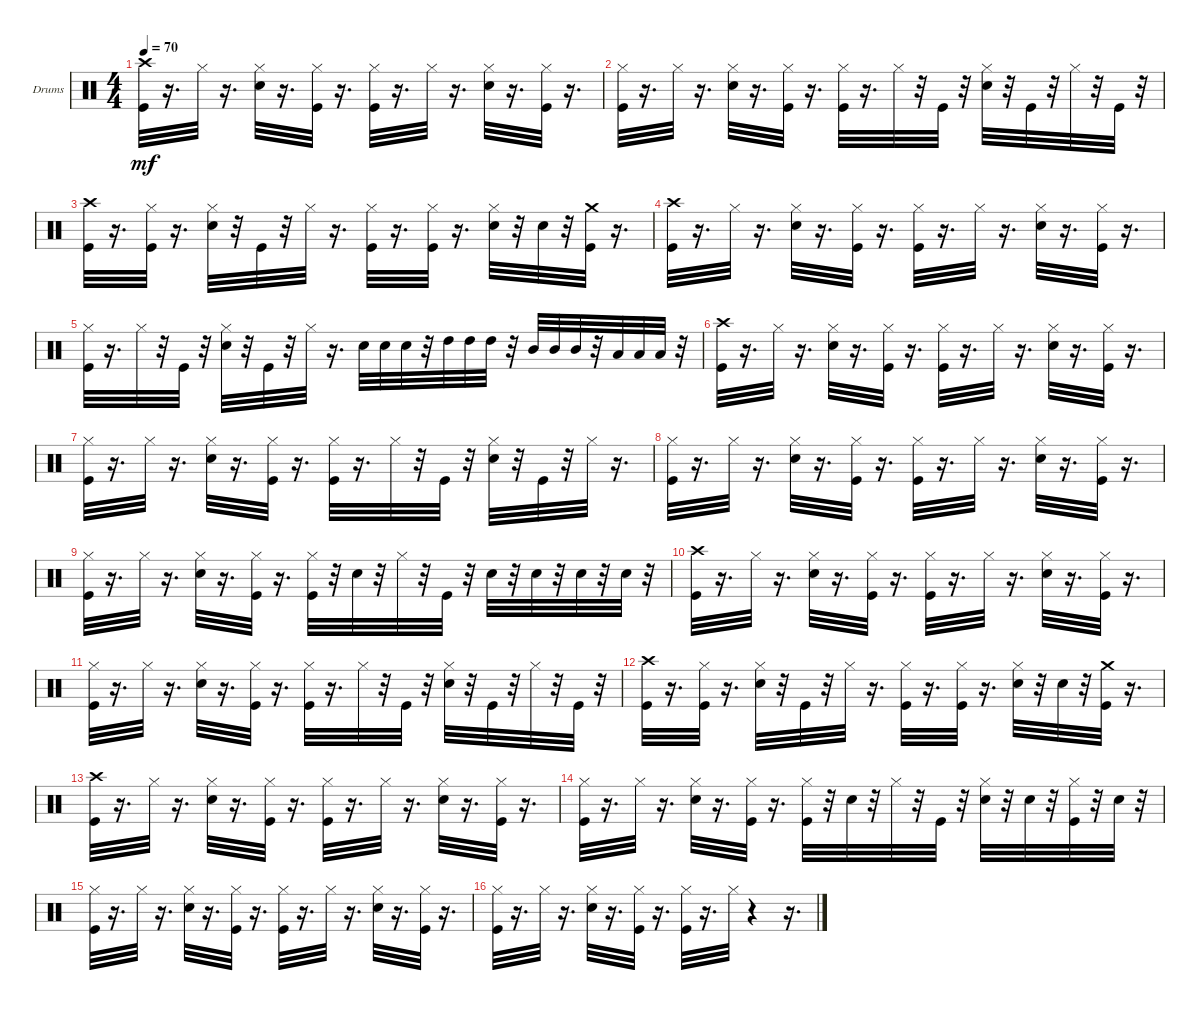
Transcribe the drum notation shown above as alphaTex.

\bracketExtendMode groupsimilarinstruments
\firstSystemTrackNameOrientation horizontal
\otherSystemsTrackNameOrientation horizontal
\track ("" "Drums") {instrument percussion}
\staff {score}
\articulation defaults
\ts (4 4)
\tempo 70
\clef neutral
\ks c
("Crash high (hit)" "Kick (hit)").32{dy mf} r.16{d} "Hi-Hat (closed)".32 r.16{d} ("Snare (hit) 2" "Hi-Hat (closed)").32 r.16{d} ("Kick (hit)" "Hi-Hat (closed)").32 r.16{d} ("Kick (hit)" "Hi-Hat (closed)").32 r.16{d} "Hi-Hat (closed)".32 r.16{d} ("Snare (hit) 2" "Hi-Hat (closed)").32 r.16{d} ("Kick (hit)" "Hi-Hat (closed)").32 r.16{d} |
("Hi-Hat (closed)" "Kick (hit)").32 r.16{d} "Hi-Hat (closed)".32 r.16{d} ("Snare (hit) 2" "Hi-Hat (closed)").32 r.16{d} ("Kick (hit)" "Hi-Hat (closed)").32 r.16{d} ("Kick (hit)" "Hi-Hat (closed)").32 r.16{d} "Hi-Hat (closed)".32 r.32 "Kick (hit)".32 r.32 ("Snare (hit) 2" "Hi-Hat (closed)").32 r.32 "Kick (hit)".32 r.32 "Hi-Hat (closed)".32 r.32 "Kick (hit)".32 r.32 |
("Crash high (hit)" "Kick (hit)").32 r.16{d} ("Hi-Hat (closed)" "Kick (hit)").32 r.16{d} ("Hi-Hat (closed)" "Snare (hit) 2").32 r.32 "Kick (hit)".32 r.32 "Hi-Hat (closed)".32 r.16{d} ("Hi-Hat (closed)" "Kick (hit)").32 r.16{d} ("Hi-Hat (closed)" "Kick (hit)").32 r.16{d} ("Hi-Hat (closed)" "Snare (hit) 2").32 r.32 "Snare (hit) 2".32 r.32 ("Crash medium (hit)" "Kick (hit)").32 r.16{d} |
("Crash high (hit)" "Kick (hit)").32 r.16{d} "Hi-Hat (closed)".32 r.16{d} ("Snare (hit) 2" "Hi-Hat (closed)").32 r.16{d} ("Kick (hit)" "Hi-Hat (closed)").32 r.16{d} ("Kick (hit)" "Hi-Hat (closed)").32 r.16{d} "Hi-Hat (closed)".32 r.16{d} ("Snare (hit) 2" "Hi-Hat (closed)").32 r.16{d} ("Kick (hit)" "Hi-Hat (closed)").32 r.16{d} |
("Hi-Hat (closed)" "Kick (hit)").32 r.16{d} "Hi-Hat (closed)".32 r.32 "Kick (hit)".32 r.32 ("Snare (hit) 2" "Hi-Hat (closed)").32 r.32 "Kick (hit)".32 r.32 "Hi-Hat (closed)".32 r.16{d} "Snare (hit) 2".32 "Snare (hit) 2".32 "Snare (hit) 2".32 r.32 "High Tom (hit)".32 "High Tom (hit)".32 "High Tom (hit)".32 r.32 "Mid Tom (hit)".32 "Mid Tom (hit)".32 "Mid Tom (hit)".32 r.32 "Low Tom (hit)".32 "Low Tom (hit)".32 "Low Tom (hit)".32 r.32 |
("Crash high (hit)" "Kick (hit)").32 r.16{d} "Hi-Hat (closed)".32 r.16{d} ("Snare (hit) 2" "Hi-Hat (closed)").32 r.16{d} ("Kick (hit)" "Hi-Hat (closed)").32 r.16{d} ("Kick (hit)" "Hi-Hat (closed)").32 r.16{d} "Hi-Hat (closed)".32 r.16{d} ("Snare (hit) 2" "Hi-Hat (closed)").32 r.16{d} ("Kick (hit)" "Hi-Hat (closed)").32 r.16{d} |
("Hi-Hat (closed)" "Kick (hit)").32 r.16{d} "Hi-Hat (closed)".32 r.16{d} ("Snare (hit) 2" "Hi-Hat (closed)").32 r.16{d} ("Kick (hit)" "Hi-Hat (closed)").32 r.16{d} ("Kick (hit)" "Hi-Hat (closed)").32 r.16{d} "Hi-Hat (closed)".32 r.32 "Kick (hit)".32 r.32 ("Snare (hit) 2" "Hi-Hat (closed)").32 r.32 "Kick (hit)".32 r.32 "Hi-Hat (closed)".32 r.16{d} |
("Hi-Hat (closed)" "Kick (hit)").32 r.16{d} "Hi-Hat (closed)".32 r.16{d} ("Snare (hit) 2" "Hi-Hat (closed)").32 r.16{d} ("Kick (hit)" "Hi-Hat (closed)").32 r.16{d} ("Kick (hit)" "Hi-Hat (closed)").32 r.16{d} "Hi-Hat (closed)".32 r.16{d} ("Snare (hit) 2" "Hi-Hat (closed)").32 r.16{d} ("Kick (hit)" "Hi-Hat (closed)").32 r.16{d} |
("Hi-Hat (closed)" "Kick (hit)").32 r.16{d} "Hi-Hat (closed)".32 r.16{d} ("Snare (hit) 2" "Hi-Hat (closed)").32 r.16{d} ("Kick (hit)" "Hi-Hat (closed)").32 r.16{d} ("Kick (hit)" "Hi-Hat (closed)").32 r.32 "Snare (hit) 2".32 r.32 "Hi-Hat (closed)".32 r.32 "Kick (hit)".32 r.32 "Snare (hit) 2".32 r.32 "Snare (hit) 2".32 r.32 "Snare (hit) 2".32 r.32 "Snare (hit) 2".32 r.32 |
("Crash high (hit)" "Kick (hit)").32 r.16{d} "Hi-Hat (closed)".32 r.16{d} ("Snare (hit) 2" "Hi-Hat (closed)").32 r.16{d} ("Kick (hit)" "Hi-Hat (closed)").32 r.16{d} ("Kick (hit)" "Hi-Hat (closed)").32 r.16{d} "Hi-Hat (closed)".32 r.16{d} ("Snare (hit) 2" "Hi-Hat (closed)").32 r.16{d} ("Kick (hit)" "Hi-Hat (closed)").32 r.16{d} |
("Hi-Hat (closed)" "Kick (hit)").32 r.16{d} "Hi-Hat (closed)".32 r.16{d} ("Snare (hit) 2" "Hi-Hat (closed)").32 r.16{d} ("Kick (hit)" "Hi-Hat (closed)").32 r.16{d} ("Kick (hit)" "Hi-Hat (closed)").32 r.16{d} "Hi-Hat (closed)".32 r.32 "Kick (hit)".32 r.32 ("Snare (hit) 2" "Hi-Hat (closed)").32 r.32 "Kick (hit)".32 r.32 "Hi-Hat (closed)".32 r.32 "Kick (hit)".32 r.32 |
("Crash high (hit)" "Kick (hit)").32 r.16{d} ("Hi-Hat (closed)" "Kick (hit)").32 r.16{d} ("Hi-Hat (closed)" "Snare (hit) 2").32 r.32 "Kick (hit)".32 r.32 "Hi-Hat (closed)".32 r.16{d} ("Hi-Hat (closed)" "Kick (hit)").32 r.16{d} ("Hi-Hat (closed)" "Kick (hit)").32 r.16{d} ("Hi-Hat (closed)" "Snare (hit) 2").32 r.32 "Snare (hit) 2".32 r.32 ("Crash medium (hit)" "Kick (hit)").32 r.16{d} |
("Crash high (hit)" "Kick (hit)").32 r.16{d} "Hi-Hat (closed)".32 r.16{d} ("Snare (hit) 2" "Hi-Hat (closed)").32 r.16{d} ("Kick (hit)" "Hi-Hat (closed)").32 r.16{d} ("Kick (hit)" "Hi-Hat (closed)").32 r.16{d} "Hi-Hat (closed)".32 r.16{d} ("Snare (hit) 2" "Hi-Hat (closed)").32 r.16{d} ("Kick (hit)" "Hi-Hat (closed)").32 r.16{d} |
("Hi-Hat (closed)" "Kick (hit)").32 r.16{d} "Hi-Hat (closed)".32 r.16{d} ("Snare (hit) 2" "Hi-Hat (closed)").32 r.16{d} ("Kick (hit)" "Hi-Hat (closed)").32 r.16{d} ("Kick (hit)" "Hi-Hat (closed)").32 r.32 "Snare (hit) 2".32 r.32 "Hi-Hat (closed)".32 r.32 "Kick (hit)".32 r.32 ("Snare (hit) 2" "Hi-Hat (closed)").32 r.32 "Snare (hit) 2".32 r.32 ("Kick (hit)" "Hi-Hat (closed)").32 r.32 "Snare (hit) 2".32 r.32 |
("Hi-Hat (closed)" "Kick (hit)").32 r.16{d} "Hi-Hat (closed)".32 r.16{d} ("Snare (hit) 2" "Hi-Hat (closed)").32 r.16{d} ("Kick (hit)" "Hi-Hat (closed)").32 r.16{d} ("Kick (hit)" "Hi-Hat (closed)").32 r.16{d} "Hi-Hat (closed)".32 r.16{d} ("Snare (hit) 2" "Hi-Hat (closed)").32 r.16{d} ("Kick (hit)" "Hi-Hat (closed)").32 r.16{d} |
("Hi-Hat (closed)" "Kick (hit)").32 r.16{d} "Hi-Hat (closed)".32 r.16{d} ("Snare (hit) 2" "Hi-Hat (closed)").32 r.16{d} ("Kick (hit)" "Hi-Hat (closed)").32 r.16{d} ("Hi-Hat (closed)" "Kick (hit)").32 r.16{d} "Hi-Hat (closed)".32 r.4 r.16{d}
